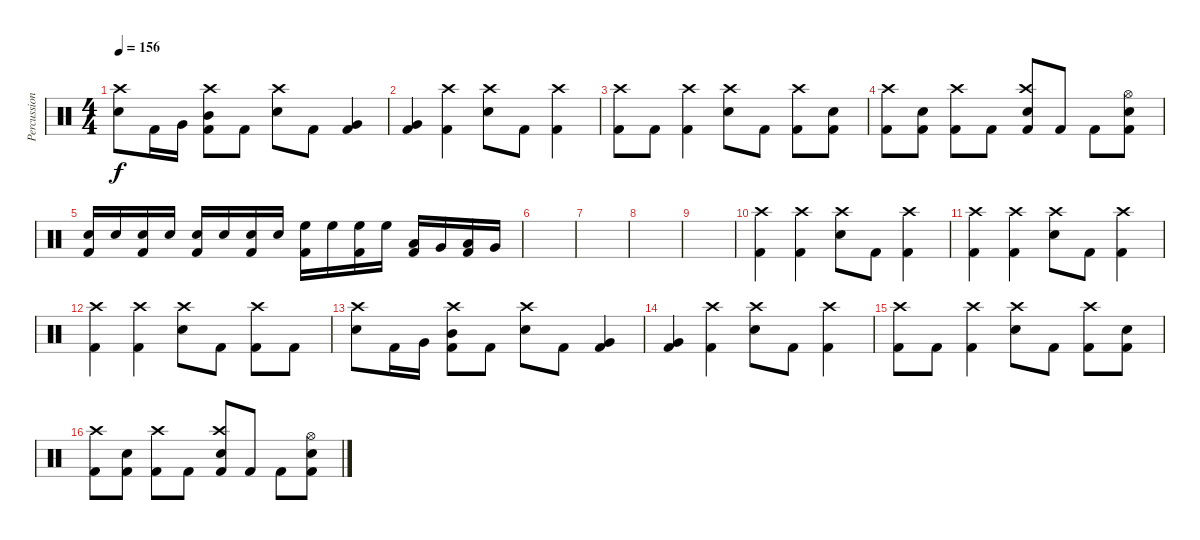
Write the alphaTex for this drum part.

\track ("Percussion" "Percussion") {instrument percussion}
\staff {score}
\articulation defaults
\ts (4 4)
\tempo 156
\clef neutral
\ks c
("Electric Snare (hit)" "Crash high (hit)").8{dy f} "Kick (hit) 2".16 "Very Low Tom (hit)".16 ("Kick (hit) 2" "Mid Tom (hit)" "Crash high (hit)").8 "Kick (hit) 2".8 ("Electric Snare (hit)" "Crash high (hit)").8 "Kick (hit) 2".8 ("Kick (hit) 2" "Very Low Tom (hit)").4 |
("Kick (hit) 2" "Very Low Tom (hit)").4 ("Kick (hit) 2" "Crash high (hit)").4 ("Electric Snare (hit)" "Crash high (hit)").8 "Kick (hit) 2".8 ("Kick (hit) 2" "Crash high (hit)").4 |
("Kick (hit) 2" "Crash high (hit)").8 "Kick (hit) 2".8 ("Kick (hit) 2" "Crash high (hit)").4 ("Electric Snare (hit)" "Crash high (hit)").8 "Kick (hit) 2".8 ("Kick (hit) 2" "Crash high (hit)").8 ("Kick (hit) 2" "Electric Snare (hit)").8 |
("Kick (hit) 2" "Crash high (hit)").8 ("Kick (hit) 2" "Electric Snare (hit)").8 ("Kick (hit) 2" "Crash high (hit)").8 "Kick (hit) 2".8 ("Kick (hit) 2" "Electric Snare (hit)" "Crash high (hit)").8 "Kick (hit) 2".8 "Kick (hit) 2".8 ("Kick (hit) 2" "Electric Snare (hit)" "Hi-Hat (open)").8 |
("Kick (hit) 2" "Electric Snare (hit)").16 "Electric Snare (hit)".16 ("Kick (hit) 2" "Electric Snare (hit)").16 "Electric Snare (hit)".16 ("Kick (hit) 2" "Electric Snare (hit)").16 "Electric Snare (hit)".16 ("Kick (hit) 2" "Electric Snare (hit)").16 "Electric Snare (hit)".16 ("Kick (hit) 2" "High Floor Tom (hit)").16 "High Floor Tom (hit)".16 ("Kick (hit) 2" "High Floor Tom (hit)").16 "High Floor Tom (hit)".16 ("Kick (hit) 2" "Low Tom (hit)").16 "Very Low Tom (hit)".16 ("Kick (hit) 2" "Low Tom (hit)").16 "Very Low Tom (hit)".16 |
|
|
|
|
("Kick (hit) 2" "Crash high (hit)").4 ("Kick (hit) 2" "Crash high (hit)").4 ("Electric Snare (hit)" "Crash high (hit)").8 "Kick (hit) 2".8 ("Kick (hit) 2" "Crash high (hit)").4 |
("Kick (hit) 2" "Crash high (hit)").4 ("Kick (hit) 2" "Crash high (hit)").4 ("Electric Snare (hit)" "Crash high (hit)").8 "Kick (hit) 2".8 ("Kick (hit) 2" "Crash high (hit)").4 |
("Kick (hit) 2" "Crash high (hit)").4 ("Kick (hit) 2" "Crash high (hit)").4 ("Electric Snare (hit)" "Crash high (hit)").8 "Kick (hit) 2".8 ("Kick (hit) 2" "Crash high (hit)").8 "Kick (hit) 2".8 |
("Electric Snare (hit)" "Crash high (hit)").8 "Kick (hit) 2".16 "Very Low Tom (hit)".16 ("Kick (hit) 2" "Mid Tom (hit)" "Crash high (hit)").8 "Kick (hit) 2".8 ("Electric Snare (hit)" "Crash high (hit)").8 "Kick (hit) 2".8 ("Kick (hit) 2" "Very Low Tom (hit)").4 |
("Kick (hit) 2" "Very Low Tom (hit)").4 ("Kick (hit) 2" "Crash high (hit)").4 ("Electric Snare (hit)" "Crash high (hit)").8 "Kick (hit) 2".8 ("Kick (hit) 2" "Crash high (hit)").4 |
("Kick (hit) 2" "Crash high (hit)").8 "Kick (hit) 2".8 ("Kick (hit) 2" "Crash high (hit)").4 ("Electric Snare (hit)" "Crash high (hit)").8 "Kick (hit) 2".8 ("Kick (hit) 2" "Crash high (hit)").8 ("Kick (hit) 2" "Electric Snare (hit)").8 |
("Kick (hit) 2" "Crash high (hit)").8 ("Kick (hit) 2" "Electric Snare (hit)").8 ("Kick (hit) 2" "Crash high (hit)").8 "Kick (hit) 2".8 ("Kick (hit) 2" "Electric Snare (hit)" "Crash high (hit)").8 "Kick (hit) 2".8 "Kick (hit) 2".8 ("Kick (hit) 2" "Electric Snare (hit)" "Hi-Hat (open)").8
